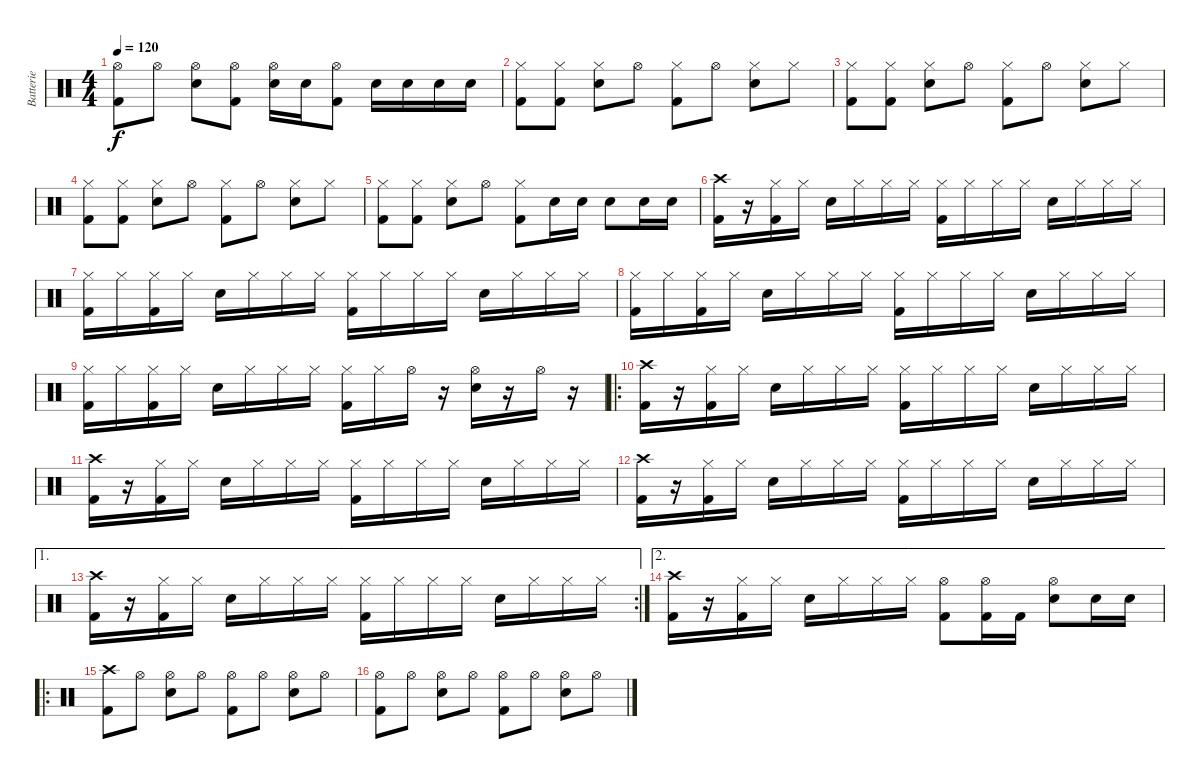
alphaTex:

\track ("Batterie" "Batterie") {instrument percussion}
\staff {score}
\articulation defaults
\ts (4 4)
\tempo 120
\clef neutral
\ks c
("Hi-Hat (open)" "Kick (hit) 2").8{dy f} "Hi-Hat (open)".8 ("Hi-Hat (open)" "Snare (hit) 2").8 ("Hi-Hat (open)" "Kick (hit) 2").8 ("Hi-Hat (open)" "Snare (hit) 2").16 "Snare (hit) 2".16 ("Hi-Hat (open)" "Kick (hit) 2").8 "Snare (hit) 2".16 "Snare (hit) 2".16 "Snare (hit) 2".16 "Snare (hit) 2".16 |
("Hi-Hat (closed)" "Kick (hit) 2").8 ("Hi-Hat (closed)" "Kick (hit) 2").8 ("Hi-Hat (closed)" "Snare (hit) 2").8 "Hi-Hat (open)".8 ("Hi-Hat (closed)" "Kick (hit) 2").8 "Hi-Hat (open)".8 ("Hi-Hat (closed)" "Snare (hit) 2").8 "Hi-Hat (closed)".8 |
("Hi-Hat (closed)" "Kick (hit) 2").8 ("Hi-Hat (closed)" "Kick (hit) 2").8 ("Hi-Hat (closed)" "Snare (hit) 2").8 "Hi-Hat (open)".8 ("Hi-Hat (closed)" "Kick (hit) 2").8 "Hi-Hat (open)".8 ("Hi-Hat (closed)" "Snare (hit) 2").8 "Hi-Hat (closed)".8 |
("Hi-Hat (closed)" "Kick (hit) 2").8 ("Hi-Hat (closed)" "Kick (hit) 2").8 ("Hi-Hat (closed)" "Snare (hit) 2").8 "Hi-Hat (open)".8 ("Hi-Hat (closed)" "Kick (hit) 2").8 "Hi-Hat (open)".8 ("Hi-Hat (closed)" "Snare (hit) 2").8 "Hi-Hat (closed)".8 |
("Hi-Hat (closed)" "Kick (hit) 2").8 ("Hi-Hat (closed)" "Kick (hit) 2").8 ("Hi-Hat (closed)" "Snare (hit) 2").8 "Hi-Hat (open)".8 ("Hi-Hat (closed)" "Kick (hit) 2").8 "Snare (hit) 2".16 "Snare (hit) 2".16 "Snare (hit) 2".8 "Snare (hit) 2".16 "Snare (hit) 2".16 |
("Crash high (hit)" "Kick (hit) 2").16 r.16 ("Hi-Hat (closed)" "Kick (hit) 2").16 "Hi-Hat (closed)".16 "Snare (hit) 2".16 "Hi-Hat (closed)".16 "Hi-Hat (closed)".16 "Hi-Hat (closed)".16 ("Hi-Hat (closed)" "Kick (hit) 2").16 "Hi-Hat (closed)".16 "Hi-Hat (closed)".16 "Hi-Hat (closed)".16 "Snare (hit) 2".16 "Hi-Hat (closed)".16 "Hi-Hat (closed)".16 "Hi-Hat (closed)".16 |
("Hi-Hat (closed)" "Kick (hit) 2").16 "Hi-Hat (closed)".16 ("Hi-Hat (closed)" "Kick (hit) 2").16 "Hi-Hat (closed)".16 "Snare (hit) 2".16 "Hi-Hat (closed)".16 "Hi-Hat (closed)".16 "Hi-Hat (closed)".16 ("Hi-Hat (closed)" "Kick (hit) 2").16 "Hi-Hat (closed)".16 "Hi-Hat (closed)".16 "Hi-Hat (closed)".16 "Snare (hit) 2".16 "Hi-Hat (closed)".16 "Hi-Hat (closed)".16 "Hi-Hat (closed)".16 |
("Hi-Hat (closed)" "Kick (hit) 2").16 "Hi-Hat (closed)".16 ("Hi-Hat (closed)" "Kick (hit) 2").16 "Hi-Hat (closed)".16 "Snare (hit) 2".16 "Hi-Hat (closed)".16 "Hi-Hat (closed)".16 "Hi-Hat (closed)".16 ("Hi-Hat (closed)" "Kick (hit) 2").16 "Hi-Hat (closed)".16 "Hi-Hat (closed)".16 "Hi-Hat (closed)".16 "Snare (hit) 2".16 "Hi-Hat (closed)".16 "Hi-Hat (closed)".16 "Hi-Hat (closed)".16 |
("Hi-Hat (closed)" "Kick (hit) 2").16 "Hi-Hat (closed)".16 ("Hi-Hat (closed)" "Kick (hit) 2").16 "Hi-Hat (closed)".16 "Snare (hit) 2".16 "Hi-Hat (closed)".16 "Hi-Hat (closed)".16 "Hi-Hat (closed)".16 ("Hi-Hat (closed)" "Kick (hit) 2").16 "Hi-Hat (closed)".16 "Hi-Hat (open)".16 r.16 ("Hi-Hat (open)" "Snare (hit) 2").16 r.16 "Hi-Hat (open)".16 r.16 |
\ro
("Crash high (hit)" "Kick (hit) 2").16 r.16 ("Hi-Hat (closed)" "Kick (hit) 2").16 "Hi-Hat (closed)".16 "Snare (hit) 2".16 "Hi-Hat (closed)".16 "Hi-Hat (closed)".16 "Hi-Hat (closed)".16 ("Hi-Hat (closed)" "Kick (hit) 2").16 "Hi-Hat (closed)".16 "Hi-Hat (closed)".16 "Hi-Hat (closed)".16 "Snare (hit) 2".16 "Hi-Hat (closed)".16 "Hi-Hat (closed)".16 "Hi-Hat (closed)".16 |
("Crash high (hit)" "Kick (hit) 2").16 r.16 ("Hi-Hat (closed)" "Kick (hit) 2").16 "Hi-Hat (closed)".16 "Snare (hit) 2".16 "Hi-Hat (closed)".16 "Hi-Hat (closed)".16 "Hi-Hat (closed)".16 ("Hi-Hat (closed)" "Kick (hit) 2").16 "Hi-Hat (closed)".16 "Hi-Hat (closed)".16 "Hi-Hat (closed)".16 "Snare (hit) 2".16 "Hi-Hat (closed)".16 "Hi-Hat (closed)".16 "Hi-Hat (closed)".16 |
("Crash high (hit)" "Kick (hit) 2").16 r.16 ("Hi-Hat (closed)" "Kick (hit) 2").16 "Hi-Hat (closed)".16 "Snare (hit) 2".16 "Hi-Hat (closed)".16 "Hi-Hat (closed)".16 "Hi-Hat (closed)".16 ("Hi-Hat (closed)" "Kick (hit) 2").16 "Hi-Hat (closed)".16 "Hi-Hat (closed)".16 "Hi-Hat (closed)".16 "Snare (hit) 2".16 "Hi-Hat (closed)".16 "Hi-Hat (closed)".16 "Hi-Hat (closed)".16 |
\ae 1
\rc 2
("Crash high (hit)" "Kick (hit) 2").16 r.16 ("Hi-Hat (closed)" "Kick (hit) 2").16 "Hi-Hat (closed)".16 "Snare (hit) 2".16 "Hi-Hat (closed)".16 "Hi-Hat (closed)".16 "Hi-Hat (closed)".16 ("Hi-Hat (closed)" "Kick (hit) 2").16 "Hi-Hat (closed)".16 "Hi-Hat (closed)".16 "Hi-Hat (closed)".16 "Snare (hit) 2".16 "Hi-Hat (closed)".16 "Hi-Hat (closed)".16 "Hi-Hat (closed)".16 |
\ae 2
("Crash high (hit)" "Kick (hit) 2").16 r.16 ("Hi-Hat (closed)" "Kick (hit) 2").16 "Hi-Hat (closed)".16 "Snare (hit) 2".16 "Hi-Hat (closed)".16 "Hi-Hat (closed)".16 "Hi-Hat (closed)".16 ("Hi-Hat (open)" "Kick (hit) 2").8 ("Hi-Hat (open)" "Kick (hit) 2").16 "Kick (hit) 2".16 ("Hi-Hat (open)" "Snare (hit) 2").8 "Snare (hit) 2".16 "Snare (hit) 2".16 |
\ro
("Crash high (hit)" "Kick (hit) 2").8 "Hi-Hat (open)".8 ("Hi-Hat (open)" "Snare (hit) 2").8 "Hi-Hat (open)".8 ("Hi-Hat (open)" "Kick (hit) 2").8 "Hi-Hat (open)".8 ("Hi-Hat (open)" "Snare (hit) 2").8 "Hi-Hat (open)".8 |
("Hi-Hat (open)" "Kick (hit) 2").8 "Hi-Hat (open)".8 ("Hi-Hat (open)" "Snare (hit) 2").8 "Hi-Hat (open)".8 ("Hi-Hat (open)" "Kick (hit) 2").8 "Hi-Hat (open)".8 ("Hi-Hat (open)" "Snare (hit) 2").8 "Hi-Hat (open)".8
